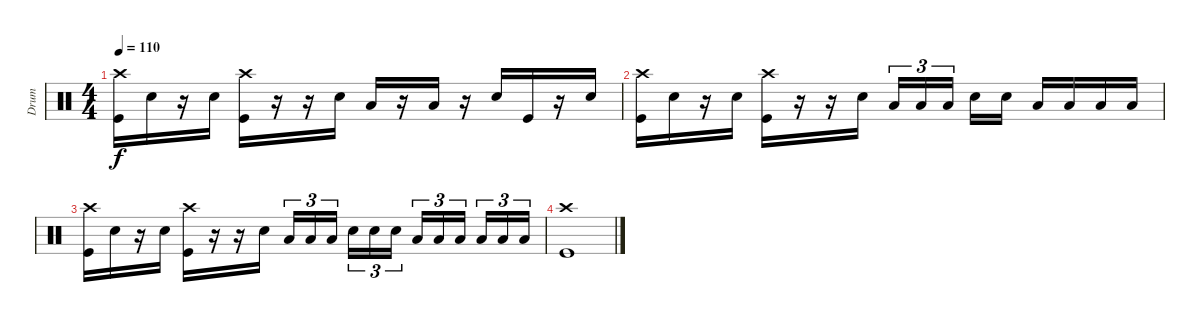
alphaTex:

\track ("Drum" "Drum") {instrument percussion}
\staff {score}
\articulation defaults
\ts (4 4)
\tempo 110
\clef neutral
\ks c
("Crash high (hit)" "Kick (hit)").16{dy f} "Electric Snare (hit)".16 r.16 "Electric Snare (hit)".16 ("Crash high (hit)" "Kick (hit)").16 r.16 r.16 "Electric Snare (hit)".16 "Low Tom (hit)".16 r.16 "Low Tom (hit)".16 r.16 "Electric Snare (hit)".16 "Kick (hit)".16 r.16 "Electric Snare (hit)".16 |
("Crash high (hit)" "Kick (hit)").16 "Electric Snare (hit)".16 r.16 "Electric Snare (hit)".16 ("Crash high (hit)" "Kick (hit)").16 r.16 r.16 "Electric Snare (hit)".16 "Low Tom (hit)".16{tu (3 2)} "Low Tom (hit)".16{tu (3 2)} "Low Tom (hit)".16{tu (3 2)} "Electric Snare (hit)".16 "Electric Snare (hit)".16 "Low Tom (hit)".16 "Low Tom (hit)".16 "Low Tom (hit)".16 "Low Tom (hit)".16 |
("Crash high (hit)" "Kick (hit)").16 "Electric Snare (hit)".16 r.16 "Electric Snare (hit)".16 ("Crash high (hit)" "Kick (hit)").16 r.16 r.16 "Electric Snare (hit)".16 "Low Tom (hit)".16{tu (3 2)} "Low Tom (hit)".16{tu (3 2)} "Low Tom (hit)".16{tu (3 2)} "Electric Snare (hit)".16{tu (3 2)} "Electric Snare (hit)".16{tu (3 2)} "Electric Snare (hit)".16{tu (3 2)} "Low Tom (hit)".16{tu (3 2)} "Low Tom (hit)".16{tu (3 2)} "Low Tom (hit)".16{tu (3 2)} "Low Tom (hit)".16{tu (3 2)} "Low Tom (hit)".16{tu (3 2)} "Low Tom (hit)".16{tu (3 2)} |
("Crash high (hit)" "Kick (hit)").1
